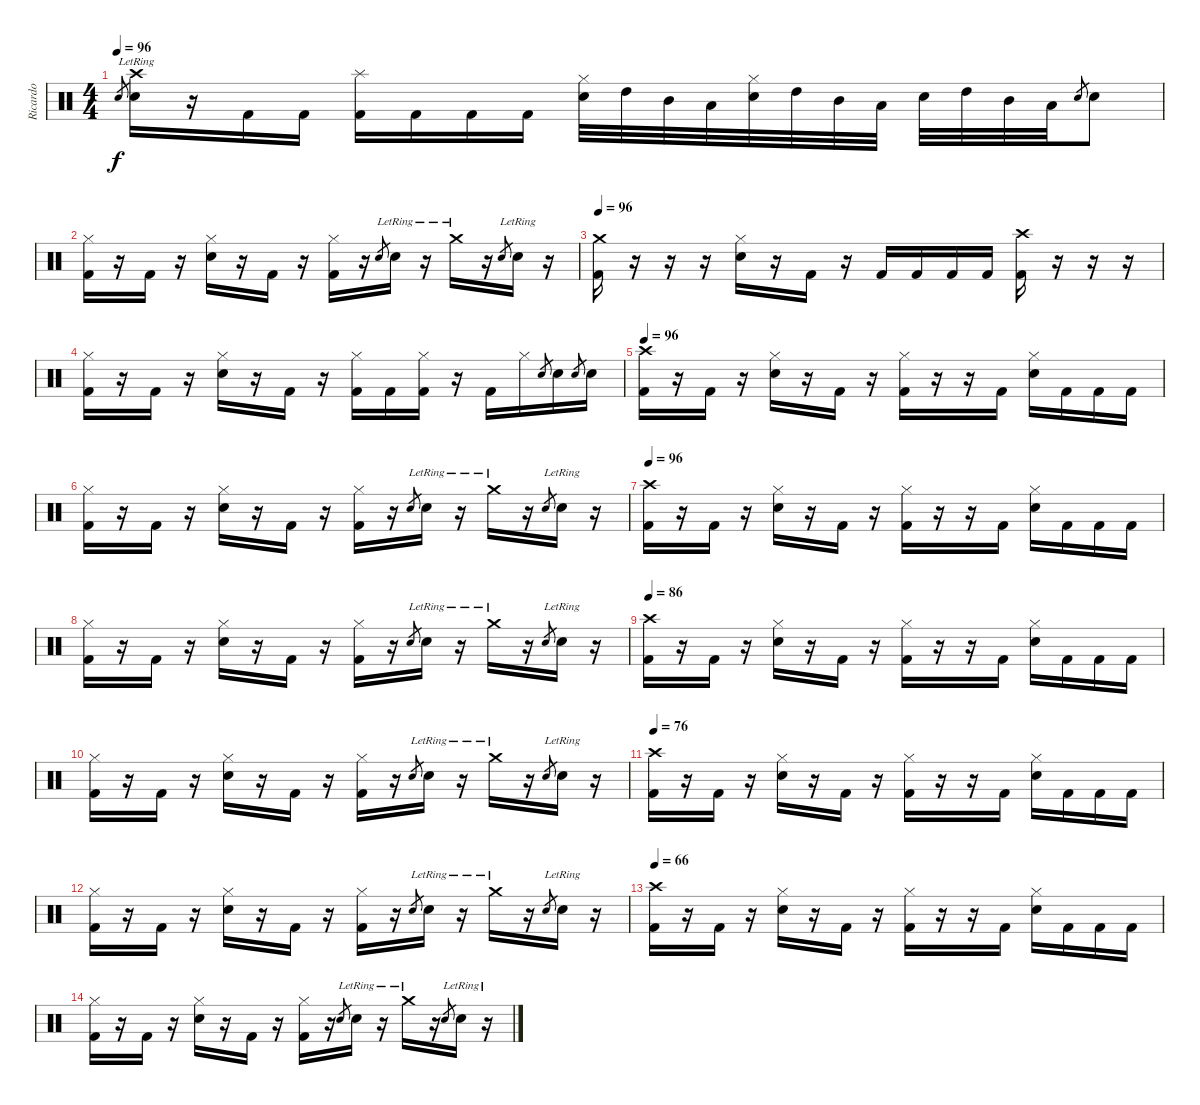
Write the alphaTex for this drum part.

\track ("Ricardo" "Ricardo") {instrument percussion}
\staff {score}
\articulation defaults
\ts (4 4)
\tempo 96
\clef neutral
\ks c "Snare (hit) 2".8{gr dy f}
("Crash high (hit)"{lr} "Snare (hit) 2").16 r.16 "Kick (hit) 2".16 "Kick (hit) 2".16 ("Splash (hit)" "Kick (hit) 2").16 "Kick (hit) 2".16 "Kick (hit) 2".16 "Kick (hit) 2".16 ("Hi-Hat (closed)" "Snare (hit) 2").32 "High Tom (hit)".32 "Mid Tom (hit)".32 "Low Tom (hit)".32 ("Hi-Hat (closed)" "Snare (hit) 2").32 "High Tom (hit)".32 "Mid Tom (hit)".32 "Low Tom (hit)".32 "Snare (hit) 2".32 "High Tom (hit)".32 "Mid Tom (hit)".32 "Low Tom (hit)".32 "Snare (hit) 2".8{gr} "Snare (hit) 2".8 |
("Hi-Hat (closed)" "Kick (hit) 2").16 r.16 "Kick (hit) 2".16 r.16 ("Hi-Hat (closed)" "Snare (hit) 2").16 r.16 "Kick (hit) 2".16 r.16 ("Hi-Hat (closed)" "Kick (hit) 2").16 r.16 "Snare (hit) 2".8{gr} "Snare (hit) 2"{lr}.16 r.16 "Crash medium (hit)"{lr}.16 r.16 "Snare (hit) 2".8{gr} "Snare (hit) 2"{lr}.16 r.16 |
\tempo 96
("Crash medium (hit)" "Kick (hit) 2").16 r.16 r.16 r.16 ("Hi-Hat (closed)" "Snare (hit) 2").16 r.16 "Kick (hit) 2".16 r.16 "Kick (hit) 2".16 "Kick (hit) 2".16 "Kick (hit) 2".16 "Kick (hit) 2".16 ("Crash high (hit)" "Kick (hit) 2").16 r.16 r.16 r.16 |
("Hi-Hat (closed)" "Kick (hit) 2").16 r.16 "Kick (hit) 2".16 r.16 ("Hi-Hat (closed)" "Snare (hit) 2").16 r.16 "Kick (hit) 2".16 r.16 ("Hi-Hat (closed)" "Kick (hit) 2").16 "Kick (hit) 2".16 ("Hi-Hat (closed)" "Kick (hit) 2").16 r.16 "Kick (hit) 2".16 "Hi-Hat (closed)".16 "Snare (hit) 2".8{gr} "Snare (hit) 2".16 "Snare (hit) 2".8{gr} "Snare (hit) 2".16 |
\tempo 96
("Crash high (hit)" "Kick (hit) 2").16 r.16 "Kick (hit) 2".16 r.16 ("Hi-Hat (closed)" "Snare (hit) 2").16 r.16 "Kick (hit) 2".16 r.16 ("Hi-Hat (closed)" "Kick (hit) 2").16 r.16 r.16 "Kick (hit) 2".16 ("Hi-Hat (closed)" "Snare (hit) 2").16 "Kick (hit) 2".16 "Kick (hit) 2".16 "Kick (hit) 2".16 |
("Hi-Hat (closed)" "Kick (hit) 2").16 r.16 "Kick (hit) 2".16 r.16 ("Hi-Hat (closed)" "Snare (hit) 2").16 r.16 "Kick (hit) 2".16 r.16 ("Hi-Hat (closed)" "Kick (hit) 2").16 r.16 "Snare (hit) 2".8{gr} "Snare (hit) 2"{lr}.16 r.16 "Crash medium (hit)"{lr}.16 r.16 "Snare (hit) 2".8{gr} "Snare (hit) 2"{lr}.16 r.16 |
\tempo 96
("Crash high (hit)" "Kick (hit) 2").16{volume 12} r.16 "Kick (hit) 2".16 r.16 ("Hi-Hat (closed)" "Snare (hit) 2").16 r.16 "Kick (hit) 2".16 r.16 ("Hi-Hat (closed)" "Kick (hit) 2").16 r.16 r.16 "Kick (hit) 2".16 ("Hi-Hat (closed)" "Snare (hit) 2").16 "Kick (hit) 2".16 "Kick (hit) 2".16 "Kick (hit) 2".16 |
("Hi-Hat (closed)" "Kick (hit) 2").16 r.16 "Kick (hit) 2".16 r.16 ("Hi-Hat (closed)" "Snare (hit) 2").16 r.16 "Kick (hit) 2".16 r.16 ("Hi-Hat (closed)" "Kick (hit) 2").16 r.16 "Snare (hit) 2".8{gr} "Snare (hit) 2"{lr}.16 r.16 "Crash medium (hit)"{lr}.16 r.16 "Snare (hit) 2".8{gr} "Snare (hit) 2"{lr}.16 r.16 |
\tempo 86
("Crash high (hit)" "Kick (hit) 2").16{volume 8} r.16 "Kick (hit) 2".16 r.16 ("Hi-Hat (closed)" "Snare (hit) 2").16 r.16 "Kick (hit) 2".16 r.16 ("Hi-Hat (closed)" "Kick (hit) 2").16 r.16 r.16 "Kick (hit) 2".16 ("Hi-Hat (closed)" "Snare (hit) 2").16 "Kick (hit) 2".16 "Kick (hit) 2".16 "Kick (hit) 2".16 |
("Hi-Hat (closed)" "Kick (hit) 2").16 r.16 "Kick (hit) 2".16 r.16 ("Hi-Hat (closed)" "Snare (hit) 2").16 r.16 "Kick (hit) 2".16 r.16 ("Hi-Hat (closed)" "Kick (hit) 2").16 r.16 "Snare (hit) 2".8{gr} "Snare (hit) 2"{lr}.16 r.16 "Crash medium (hit)"{lr}.16 r.16 "Snare (hit) 2".8{gr} "Snare (hit) 2"{lr}.16 r.16 |
\tempo 76
("Crash high (hit)" "Kick (hit) 2").16{volume 5} r.16 "Kick (hit) 2".16 r.16 ("Hi-Hat (closed)" "Snare (hit) 2").16 r.16 "Kick (hit) 2".16 r.16 ("Hi-Hat (closed)" "Kick (hit) 2").16 r.16 r.16 "Kick (hit) 2".16 ("Hi-Hat (closed)" "Snare (hit) 2").16 "Kick (hit) 2".16 "Kick (hit) 2".16 "Kick (hit) 2".16 |
("Hi-Hat (closed)" "Kick (hit) 2").16 r.16 "Kick (hit) 2".16 r.16 ("Hi-Hat (closed)" "Snare (hit) 2").16 r.16 "Kick (hit) 2".16 r.16 ("Hi-Hat (closed)" "Kick (hit) 2").16 r.16 "Snare (hit) 2".8{gr} "Snare (hit) 2"{lr}.16 r.16 "Crash medium (hit)"{lr}.16 r.16 "Snare (hit) 2".8{gr} "Snare (hit) 2"{lr}.16 r.16 |
\tempo 66
("Crash high (hit)" "Kick (hit) 2").16{volume 1} r.16 "Kick (hit) 2".16 r.16 ("Hi-Hat (closed)" "Snare (hit) 2").16 r.16 "Kick (hit) 2".16 r.16 ("Hi-Hat (closed)" "Kick (hit) 2").16 r.16 r.16 "Kick (hit) 2".16 ("Hi-Hat (closed)" "Snare (hit) 2").16 "Kick (hit) 2".16 "Kick (hit) 2".16 "Kick (hit) 2".16 |
("Hi-Hat (closed)" "Kick (hit) 2").16 r.16 "Kick (hit) 2".16 r.16 ("Hi-Hat (closed)" "Snare (hit) 2").16 r.16 "Kick (hit) 2".16 r.16 ("Hi-Hat (closed)" "Kick (hit) 2").16 r.16 "Snare (hit) 2".8{gr} "Snare (hit) 2"{lr}.16 r.16 "Crash medium (hit)"{lr}.16 r.16 "Snare (hit) 2".8{gr} "Snare (hit) 2"{lr}.16 r.16
